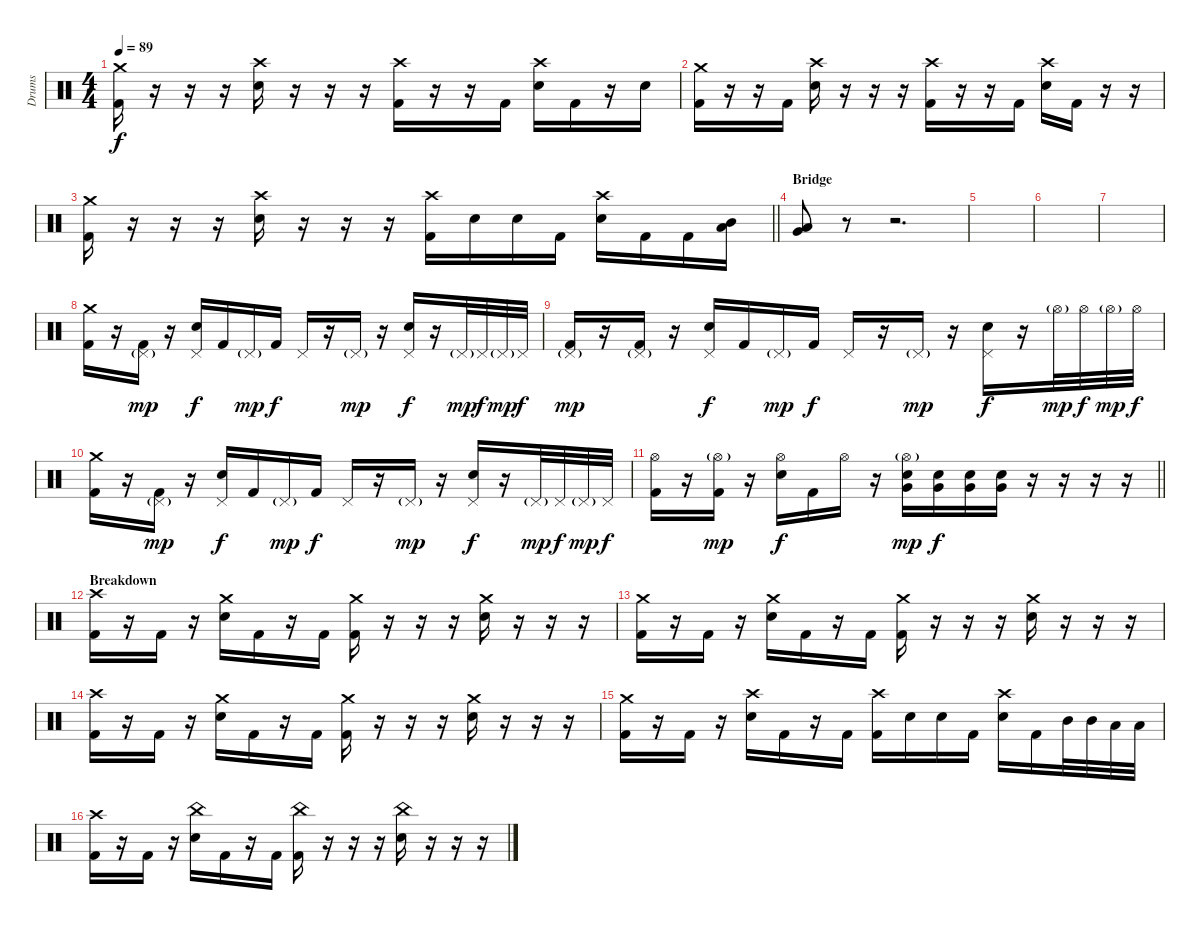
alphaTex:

\track ("Drums" "Drums") {instrument percussion}
\staff {score}
\articulation defaults
\ts (4 4)
\tempo 89
\clef neutral
\ks c
("Crash medium (hit)" "Kick (hit) 2").16{dy f} r.16 r.16 r.16 ("Crash high (hit)" "Electric Snare (hit)").16 r.16 r.16 r.16 ("Crash high (hit)" "Kick (hit) 2").16 r.16 r.16 "Kick (hit) 2".16 ("Crash high (hit)" "Electric Snare (hit)").16 "Kick (hit) 2".16 r.16 "Electric Snare (hit)".16 |
("Crash medium (hit)" "Kick (hit) 2").16 r.16 r.16 "Kick (hit) 2".16 ("Crash high (hit)" "Electric Snare (hit)").16 r.16 r.16 r.16 ("Crash high (hit)" "Kick (hit) 2").16 r.16 r.16 "Kick (hit) 2".16 ("Crash high (hit)" "Electric Snare (hit)").16 "Kick (hit) 2".16 r.16 r.16 |
\barLineRight lightlight
("Crash medium (hit)" "Kick (hit) 2").16 r.16 r.16 r.16 ("Crash high (hit)" "Electric Snare (hit)").16 r.16 r.16 r.16 ("Crash high (hit)" "Kick (hit) 2").16 "Electric Snare (hit)".16 "Electric Snare (hit)".16 "Kick (hit) 2".16 ("Crash high (hit)" "Electric Snare (hit)").16 "Kick (hit) 2".16 "Kick (hit) 2".16 ("Mid Tom (hit)" "Low Tom (hit)").16 |
\section ("" "Bridge")
("Low Tom (hit)" "Very Low Tom (hit)").8 r.8 r.2{d} |
|
|
|
("Crash medium (hit)" "Kick (hit) 2").16 r.16 ("Pedal Hi-Hat (hit)"{g} "Kick (hit) 2").16{dy mp} r.16 ("Pedal Hi-Hat (hit)" "Electric Snare (hit)").16{dy f} "Kick (hit) 2".16 "Pedal Hi-Hat (hit)"{g}.16{dy mp} "Kick (hit) 2".16{dy f} "Pedal Hi-Hat (hit)".16 r.16 "Pedal Hi-Hat (hit)"{g}.16{dy mp} r.16 ("Pedal Hi-Hat (hit)" "Electric Snare (hit)").16{dy f} r.16 "Pedal Hi-Hat (hit)"{g}.32{dy mp} "Pedal Hi-Hat (hit)".32{dy f} "Pedal Hi-Hat (hit)"{g}.32{dy mp} "Pedal Hi-Hat (hit)".32{dy f} |
("Pedal Hi-Hat (hit)"{g} "Kick (hit) 2").16{dy mp} r.16 ("Pedal Hi-Hat (hit)"{g} "Kick (hit) 2").16 r.16 ("Pedal Hi-Hat (hit)" "Electric Snare (hit)").16{dy f} "Kick (hit) 2".16 "Pedal Hi-Hat (hit)"{g}.16{dy mp} "Kick (hit) 2".16{dy f} "Pedal Hi-Hat (hit)".16 r.16 "Pedal Hi-Hat (hit)"{g}.16{dy mp} r.16 ("Pedal Hi-Hat (hit)" "Electric Snare (hit)").16{dy f} r.16 "Hi-Hat (open)"{g}.32{dy mp} "Hi-Hat (open)".32{dy f} "Hi-Hat (open)"{g}.32{dy mp} "Hi-Hat (open)".32{dy f} |
("Crash medium (hit)" "Kick (hit) 2").16 r.16 ("Pedal Hi-Hat (hit)"{g} "Kick (hit) 2").16{dy mp} r.16 ("Pedal Hi-Hat (hit)" "Electric Snare (hit)").16{dy f} "Kick (hit) 2".16 "Pedal Hi-Hat (hit)"{g}.16{dy mp} "Kick (hit) 2".16{dy f} "Pedal Hi-Hat (hit)".16 r.16 "Pedal Hi-Hat (hit)"{g}.16{dy mp} r.16 ("Pedal Hi-Hat (hit)" "Electric Snare (hit)").16{dy f} r.16 "Pedal Hi-Hat (hit)"{g}.32{dy mp} "Pedal Hi-Hat (hit)".32{dy f} "Pedal Hi-Hat (hit)"{g}.32{dy mp} "Pedal Hi-Hat (hit)".32{dy f} |
\barLineRight lightlight
("Hi-Hat (open)" "Kick (hit) 2").16 r.16 ("Hi-Hat (open)"{g} "Kick (hit) 2").16{dy mp} r.16 ("Hi-Hat (open)" "Electric Snare (hit)").16{dy f} "Kick (hit) 2".16 "Hi-Hat (open)".16 r.16 ("Hi-Hat (open)"{g} "Electric Snare (hit)" "Very Low Tom (hit)").16{dy mp} ("Electric Snare (hit)" "Very Low Tom (hit)").16{dy f} ("Electric Snare (hit)" "Very Low Tom (hit)").16 ("Electric Snare (hit)" "Very Low Tom (hit)").16 r.16 r.16 r.16 r.16 |
\section ("" "Breakdown")
("Crash high (hit)" "Kick (hit) 2").16 r.16 "Kick (hit) 2".16 r.16 ("Crash medium (hit)" "Electric Snare (hit)").16 "Kick (hit) 2".16 r.16 "Kick (hit) 2".16 ("Crash medium (hit)" "Kick (hit) 2").16 r.16 r.16 r.16 ("Crash medium (hit)" "Electric Snare (hit)").16 r.16 r.16 r.16 |
("Crash medium (hit)" "Kick (hit) 2").16 r.16 "Kick (hit) 2".16 r.16 ("Crash medium (hit)" "Electric Snare (hit)").16 "Kick (hit) 2".16 r.16 "Kick (hit) 2".16 ("Crash medium (hit)" "Kick (hit) 2").16 r.16 r.16 r.16 ("Crash medium (hit)" "Electric Snare (hit)").16 r.16 r.16 r.16 |
("Crash high (hit)" "Kick (hit) 2").16 r.16 "Kick (hit) 2".16 r.16 ("Crash medium (hit)" "Electric Snare (hit)").16 "Kick (hit) 2".16 r.16 "Kick (hit) 2".16 ("Crash medium (hit)" "Kick (hit) 2").16 r.16 r.16 r.16 ("Crash medium (hit)" "Electric Snare (hit)").16 r.16 r.16 r.16 |
("Crash medium (hit)" "Kick (hit) 2").16 r.16 "Kick (hit) 2".16 r.16 ("Crash high (hit)" "Electric Snare (hit)").16 "Kick (hit) 2".16 r.16 "Kick (hit) 2".16 ("Crash high (hit)" "Kick (hit) 2").16 "Electric Snare (hit)".16 "Electric Snare (hit)".16 "Kick (hit) 2".16 ("Crash high (hit)" "Electric Snare (hit)").16 "Kick (hit) 2".16 "Mid Tom (hit)".32 "Mid Tom (hit)".32 "Low Tom (hit)".32 "Low Tom (hit)".32 |
("Crash high (hit)" "Kick (hit) 2").16 r.16 "Kick (hit) 2".16 r.16 ("China (hit)" "Electric Snare (hit)").16 "Kick (hit) 2".16 r.16 "Kick (hit) 2".16 ("China (hit)" "Kick (hit) 2").16 r.16 r.16 r.16 ("China (hit)" "Electric Snare (hit)").16 r.16 r.16 r.16
